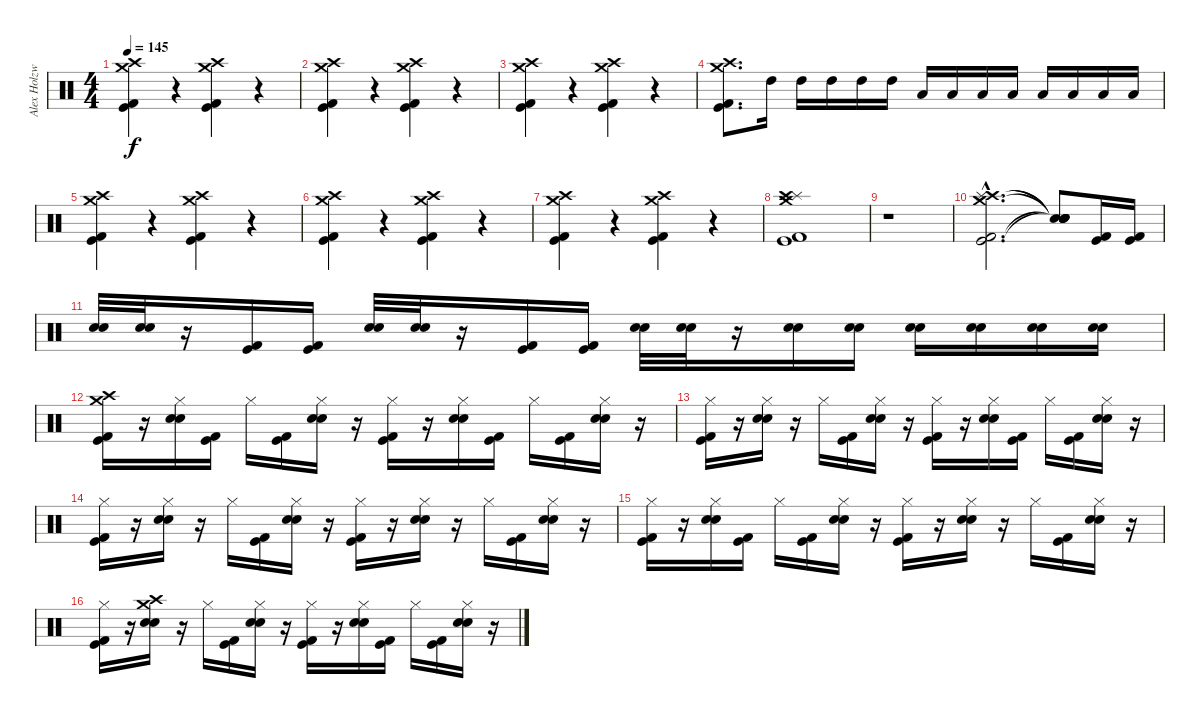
\track ("Alex Holzwarth" "Alex Holzw") {instrument percussion}
\staff {score}
\articulation defaults
\ts (4 4)
\tempo 145
\clef neutral
\ks c
("Crash high (hit)" "Crash medium (hit)" "Kick (hit) 2" "Kick (hit)").4{dy f} r.4 ("Crash medium (hit)" "Crash high (hit)" "Kick (hit) 2" "Kick (hit)").4 r.4 |
("Crash high (hit)" "Crash medium (hit)" "Kick (hit) 2" "Kick (hit)").4 r.4 ("Crash medium (hit)" "Kick (hit) 2" "Kick (hit)" "Crash high (hit)").4 r.4 |
("Crash high (hit)" "Crash medium (hit)" "Kick (hit) 2" "Kick (hit)").4 r.4 ("Crash high (hit)" "Crash medium (hit)" "Kick (hit)" "Kick (hit) 2").4 r.4 |
("Crash high (hit)" "Crash medium (hit)" "Kick (hit) 2" "Kick (hit)").8{d} "High Tom (hit)".16 "High Tom (hit)".16 "High Tom (hit)".16 "High Tom (hit)".16 "High Tom (hit)".16 "Low Tom (hit)".16 "Low Tom (hit)".16 "Low Tom (hit)".16 "Low Tom (hit)".16 "Low Floor Tom (hit)".16 "Low Floor Tom (hit)".16 "Low Floor Tom (hit)".16 "Low Floor Tom (hit)".16 |
("Crash high (hit)" "Crash medium (hit)" "Kick (hit) 2" "Kick (hit)").4 r.4 ("Crash medium (hit)" "Crash high (hit)" "Kick (hit) 2" "Kick (hit)").4 r.4 |
("Crash high (hit)" "Crash medium (hit)" "Kick (hit) 2" "Kick (hit)").4 r.4 ("Crash medium (hit)" "Kick (hit) 2" "Kick (hit)" "Crash high (hit)").4 r.4 |
("Crash high (hit)" "Crash medium (hit)" "Kick (hit) 2" "Kick (hit)").4 r.4 ("Crash high (hit)" "Crash medium (hit)" "Kick (hit)" "Kick (hit) 2").4 r.4 |
("Splash (hit)" "Crash medium (hit)" "Crash high (hit)" "Kick (hit) 2" "Kick (hit)").1 |
r.1 |
("Kick (hit)"{hac} "Kick (hit) 2"{hac} "Crash high (hit)"{hac} "Splash (hit)"{hac} "Crash medium (hit)"{hac}).2{d} ("Snare (hit)"{t} "Snare (hit)"{t} "Snare (hit)"{t} "Snare (hit)"{t} "Snare (hit)"{t}).8 ("Kick (hit) 2" "Kick (hit)").16 ("Kick (hit) 2" "Kick (hit)").16 |
("Electric Snare (hit)" "Snare (hit) 2").32 ("Electric Snare (hit)" "Snare (hit) 2").32 r.16 ("Kick (hit) 2" "Kick (hit)").16 ("Kick (hit) 2" "Kick (hit)").16 ("Electric Snare (hit)" "Snare (hit) 2").32 ("Electric Snare (hit)" "Snare (hit) 2").32 r.16 ("Kick (hit) 2" "Kick (hit)").16 ("Kick (hit) 2" "Kick (hit)").16 ("Electric Snare (hit)" "Snare (hit) 2").32 ("Electric Snare (hit)" "Snare (hit) 2").32 r.16 ("Electric Snare (hit)" "Snare (hit) 2").16 ("Electric Snare (hit)" "Snare (hit) 2").16 ("Electric Snare (hit)" "Snare (hit) 2").16 ("Electric Snare (hit)" "Snare (hit) 2").16 ("Electric Snare (hit)" "Snare (hit) 2").16 ("Electric Snare (hit)" "Snare (hit) 2").16 |
("Crash medium (hit)" "Crash high (hit)" "Kick (hit) 2" "Kick (hit)").16 r.16 ("Hi-Hat (closed)" "Electric Snare (hit)" "Snare (hit) 2").16 ("Kick (hit) 2" "Kick (hit)").16 "Hi-Hat (closed)".16 ("Kick (hit) 2" "Kick (hit)").16 ("Electric Snare (hit)" "Snare (hit) 2" "Hi-Hat (closed)").16 r.16 ("Hi-Hat (closed)" "Kick (hit) 2" "Kick (hit)").16 r.16 ("Hi-Hat (closed)" "Electric Snare (hit)" "Snare (hit) 2").16 ("Kick (hit) 2" "Kick (hit)").16 "Hi-Hat (closed)".16 ("Kick (hit) 2" "Kick (hit)").16 ("Electric Snare (hit)" "Snare (hit) 2" "Hi-Hat (closed)").16 r.16 |
("Hi-Hat (closed)" "Kick (hit) 2" "Kick (hit)").16 r.16 ("Hi-Hat (closed)" "Electric Snare (hit)" "Snare (hit) 2").16 r.16 "Hi-Hat (closed)".16 ("Kick (hit) 2" "Kick (hit)").16 ("Electric Snare (hit)" "Snare (hit) 2" "Hi-Hat (closed)").16 r.16 ("Hi-Hat (closed)" "Kick (hit) 2" "Kick (hit)").16 r.16 ("Hi-Hat (closed)" "Electric Snare (hit)" "Snare (hit) 2").16 ("Kick (hit) 2" "Kick (hit)").16 "Hi-Hat (closed)".16 ("Kick (hit) 2" "Kick (hit)").16 ("Electric Snare (hit)" "Snare (hit) 2" "Hi-Hat (closed)").16 r.16 |
("Hi-Hat (closed)" "Kick (hit) 2" "Kick (hit)").16 r.16 ("Hi-Hat (closed)" "Electric Snare (hit)" "Snare (hit) 2").16 r.16 "Hi-Hat (closed)".16 ("Kick (hit) 2" "Kick (hit)").16 ("Electric Snare (hit)" "Snare (hit) 2" "Hi-Hat (closed)").16 r.16 ("Hi-Hat (closed)" "Kick (hit) 2" "Kick (hit)").16 r.16 ("Hi-Hat (closed)" "Electric Snare (hit)" "Snare (hit) 2").16 r.16 "Hi-Hat (closed)".16 ("Kick (hit) 2" "Kick (hit)").16 ("Electric Snare (hit)" "Snare (hit) 2" "Hi-Hat (closed)").16 r.16 |
("Hi-Hat (closed)" "Kick (hit) 2" "Kick (hit)").16 r.16 ("Hi-Hat (closed)" "Electric Snare (hit)" "Snare (hit) 2").16 ("Kick (hit) 2" "Kick (hit)").16 "Hi-Hat (closed)".16 ("Kick (hit) 2" "Kick (hit)").16 ("Electric Snare (hit)" "Snare (hit) 2" "Hi-Hat (closed)").16 r.16 ("Hi-Hat (closed)" "Kick (hit) 2" "Kick (hit)").16 r.16 ("Hi-Hat (closed)" "Electric Snare (hit)" "Snare (hit) 2").16 r.16 "Hi-Hat (closed)".16 ("Kick (hit) 2" "Kick (hit)").16 ("Electric Snare (hit)" "Snare (hit) 2" "Hi-Hat (closed)").16 r.16 |
("Hi-Hat (closed)" "Kick (hit) 2" "Kick (hit)").16 r.16 ("Crash high (hit)" "Crash medium (hit)" "Electric Snare (hit)" "Snare (hit) 2").16 r.16 "Hi-Hat (closed)".16 ("Kick (hit) 2" "Kick (hit)").16 ("Electric Snare (hit)" "Snare (hit) 2" "Hi-Hat (closed)").16 r.16 ("Hi-Hat (closed)" "Kick (hit) 2" "Kick (hit)").16 r.16 ("Hi-Hat (closed)" "Electric Snare (hit)" "Snare (hit) 2").16 ("Kick (hit) 2" "Kick (hit)").16 "Hi-Hat (closed)".16 ("Kick (hit) 2" "Kick (hit)").16 ("Electric Snare (hit)" "Snare (hit) 2" "Hi-Hat (closed)").16 r.16
